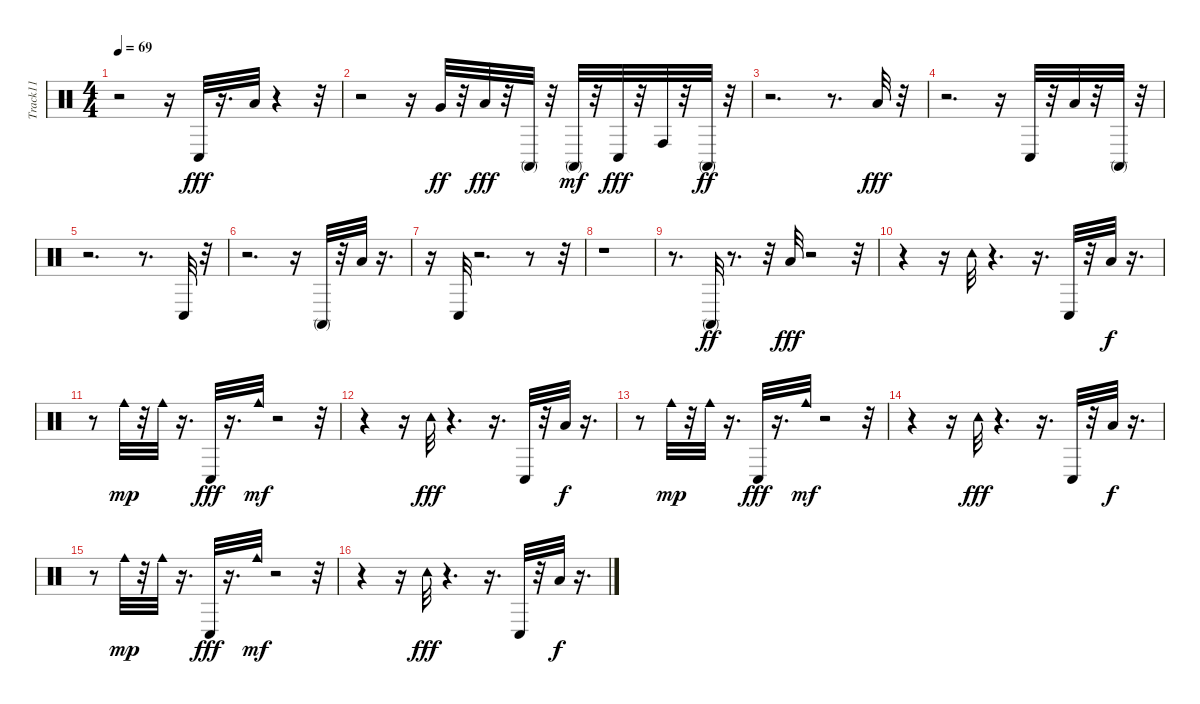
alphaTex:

\track ("Track11" "Track11") {instrument percussion}
\staff {score}
\articulation defaults
\ts (4 4)
\tempo 69
\clef neutral
\ks c
r.2{dy fff} r.16 "Conga low (hit)".32 r.16{d} "Low Tom (hit)".32 r.4 r.32 |
r.2 r.16 "Very Low Tom (hit)".32{dy ff} r.32 "Low Tom (hit)".32{dy fff} r.32 "Conga high (mute)".32 r.32 "Conga high (mute)".32{dy mf} r.32 "Conga low (hit)".32{dy fff} r.32 "Conga high (hit)".32 r.32 "Conga high (mute)".32{dy ff} r.32 |
r.2{d} r.8{d} "Low Tom (hit)".32{dy fff} r.32 |
r.2{d} r.16 "Conga low (hit)".32 r.32 "Low Tom (hit)".32 r.32 "Conga high (mute)".32 r.32 |
r.2{d} r.8{d} "Conga low (hit)".32 r.32 |
r.2{d} r.16 "Conga high (mute)".32 r.32 "Low Tom (hit)".32 r.16{d} |
r.16 "Conga low (hit)".32 r.2{d} r.8 r.32 |
r.1 |
r.8{d} "Conga high (mute)".32{dy ff} r.8{d} r.32 "Low Tom (hit)".32{dy fff} r.2 r.32 |
r.4 r.16 "Tambourine (hit)".32 r.4{d} r.16{d} "Conga low (hit)".32 r.32 "Low Tom (hit)".32{dy f} r.16{d} |
r.8 "Cowbell medium (hit)".32{dy mp} r.32 "Cowbell medium (hit)".32 r.16{d} "Conga low (hit)".32{dy fff} r.16{d} "Cowbell medium (hit)".32{dy mf} r.2 r.32 |
r.4 r.16 "Tambourine (hit)".32{dy fff} r.4{d} r.16{d} "Conga low (hit)".32 r.32 "Low Tom (hit)".32{dy f} r.16{d} |
r.8 "Cowbell medium (hit)".32{dy mp} r.32 "Cowbell medium (hit)".32 r.16{d} "Conga low (hit)".32{dy fff} r.16{d} "Cowbell medium (hit)".32{dy mf} r.2 r.32 |
r.4 r.16 "Tambourine (hit)".32{dy fff} r.4{d} r.16{d} "Conga low (hit)".32 r.32 "Low Tom (hit)".32{dy f} r.16{d} |
r.8 "Cowbell medium (hit)".32{dy mp} r.32 "Cowbell medium (hit)".32 r.16{d} "Conga low (hit)".32{dy fff} r.16{d} "Cowbell medium (hit)".32{dy mf} r.2 r.32 |
r.4 r.16 "Tambourine (hit)".32{dy fff} r.4{d} r.16{d} "Conga low (hit)".32 r.32 "Low Tom (hit)".32{dy f} r.16{d}
